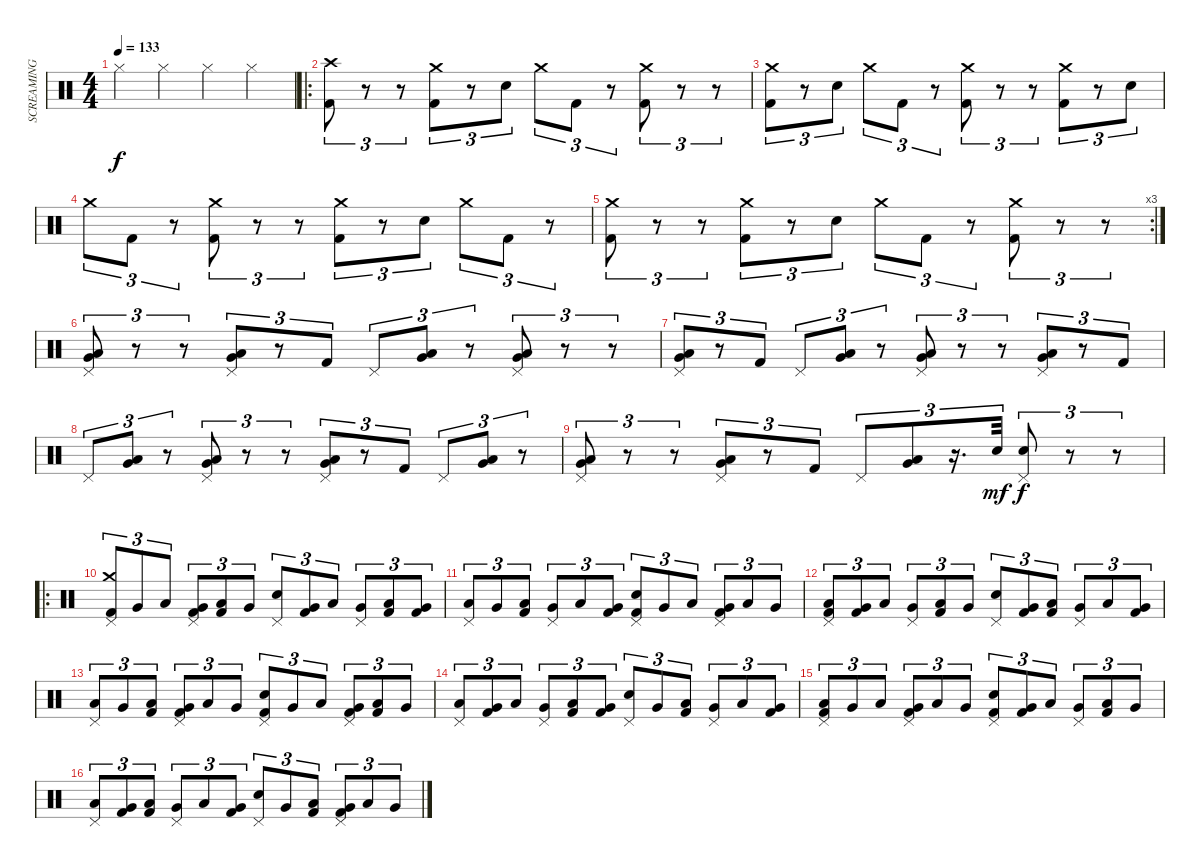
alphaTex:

\track ("SCREAMING TOASTER OVEN" "SCREAMING ") {instrument percussion}
\staff {score}
\articulation defaults
\ts (4 4)
\tempo 133
\clef neutral
\ks c "Hi-Hat (closed)".4{dy f} "Hi-Hat (closed)".4 "Hi-Hat (closed)".4 "Hi-Hat (closed)".4
|
\ro
("Crash high (hit)" "Kick (hit) 2").8{tu (3 2)} r.8{tu (3 2)} r.8{tu (3 2)} ("Crash medium (hit)" "Kick (hit) 2").8{tu (3 2)} r.8{tu (3 2)} "Electric Snare (hit)".8{tu (3 2)} "Crash medium (hit)".8{tu (3 2)} "Kick (hit) 2".8{tu (3 2)} r.8{tu (3 2)} ("Crash medium (hit)" "Kick (hit) 2").8{tu (3 2)} r.8{tu (3 2)} r.8{tu (3 2)} |
("Crash medium (hit)" "Kick (hit) 2").8{tu (3 2)} r.8{tu (3 2)} "Electric Snare (hit)".8{tu (3 2)} "Crash medium (hit)".8{tu (3 2)} "Kick (hit) 2".8{tu (3 2)} r.8{tu (3 2)} ("Crash medium (hit)" "Kick (hit) 2").8{tu (3 2)} r.8{tu (3 2)} r.8{tu (3 2)} ("Crash medium (hit)" "Kick (hit) 2").8{tu (3 2)} r.8{tu (3 2)} "Electric Snare (hit)".8{tu (3 2)} |
"Crash medium (hit)".8{tu (3 2)} "Kick (hit) 2".8{tu (3 2)} r.8{tu (3 2)} ("Crash medium (hit)" "Kick (hit) 2").8{tu (3 2)} r.8{tu (3 2)} r.8{tu (3 2)} ("Crash medium (hit)" "Kick (hit) 2").8{tu (3 2)} r.8{tu (3 2)} "Electric Snare (hit)".8{tu (3 2)} "Crash medium (hit)".8{tu (3 2)} "Kick (hit) 2".8{tu (3 2)} r.8{tu (3 2)} |
\rc 3
("Crash medium (hit)" "Kick (hit) 2").8{tu (3 2)} r.8{tu (3 2)} r.8{tu (3 2)} ("Crash medium (hit)" "Kick (hit) 2").8{tu (3 2)} r.8{tu (3 2)} "Electric Snare (hit)".8{tu (3 2)} "Crash medium (hit)".8{tu (3 2)} "Kick (hit) 2".8{tu (3 2)} r.8{tu (3 2)} ("Crash medium (hit)" "Kick (hit) 2").8{tu (3 2)} r.8{tu (3 2)} r.8{tu (3 2)} |
("Pedal Hi-Hat (hit)" "Very Low Tom (hit)" "Low Floor Tom (hit)").8{tu (3 2)} r.8{tu (3 2)} r.8{tu (3 2)} ("Pedal Hi-Hat (hit)" "Very Low Tom (hit)" "Low Floor Tom (hit)").8{tu (3 2)} r.8{tu (3 2)} "Kick (hit) 2".8{tu (3 2)} "Pedal Hi-Hat (hit)".8{tu (3 2)} ("Very Low Tom (hit)" "Low Floor Tom (hit)").8{tu (3 2)} r.8{tu (3 2)} ("Pedal Hi-Hat (hit)" "Very Low Tom (hit)" "Low Floor Tom (hit)").8{tu (3 2)} r.8{tu (3 2)} r.8{tu (3 2)} |
("Pedal Hi-Hat (hit)" "Very Low Tom (hit)" "Low Floor Tom (hit)").8{tu (3 2)} r.8{tu (3 2)} "Kick (hit) 2".8{tu (3 2)} "Pedal Hi-Hat (hit)".8{tu (3 2)} ("Very Low Tom (hit)" "Low Floor Tom (hit)").8{tu (3 2)} r.8{tu (3 2)} ("Pedal Hi-Hat (hit)" "Very Low Tom (hit)" "Low Floor Tom (hit)").8{tu (3 2)} r.8{tu (3 2)} r.8{tu (3 2)} ("Pedal Hi-Hat (hit)" "Very Low Tom (hit)" "Low Floor Tom (hit)").8{tu (3 2)} r.8{tu (3 2)} "Kick (hit) 2".8{tu (3 2)} |
"Pedal Hi-Hat (hit)".8{tu (3 2)} ("Very Low Tom (hit)" "Low Floor Tom (hit)").8{tu (3 2)} r.8{tu (3 2)} ("Pedal Hi-Hat (hit)" "Very Low Tom (hit)" "Low Floor Tom (hit)").8{tu (3 2)} r.8{tu (3 2)} r.8{tu (3 2)} ("Pedal Hi-Hat (hit)" "Very Low Tom (hit)" "Low Floor Tom (hit)").8{tu (3 2)} r.8{tu (3 2)} "Kick (hit) 2".8{tu (3 2)} "Pedal Hi-Hat (hit)".8{tu (3 2)} ("Very Low Tom (hit)" "Low Floor Tom (hit)").8{tu (3 2)} r.8{tu (3 2)} |
("Pedal Hi-Hat (hit)" "Very Low Tom (hit)" "Low Floor Tom (hit)").8{tu (3 2)} r.8{tu (3 2)} r.8{tu (3 2)} ("Pedal Hi-Hat (hit)" "Very Low Tom (hit)" "Low Floor Tom (hit)").8{tu (3 2)} r.8{tu (3 2)} "Kick (hit) 2".8{tu (3 2)} "Pedal Hi-Hat (hit)".8{tu (3 2)} ("Very Low Tom (hit)" "Low Floor Tom (hit)").8{tu (3 2)} r.16{d tu (3 2)} "Electric Snare (hit)".32{tu (3 2) dy mf} ("Pedal Hi-Hat (hit)" "Electric Snare (hit)").8{tu (3 2) dy f} r.8{tu (3 2)} r.8{tu (3 2)} |
\ro
("Crash medium (hit)" "Pedal Hi-Hat (hit)" "Kick (hit) 2").8{tu (3 2)} "Very Low Tom (hit)".8{tu (3 2)} "Low Floor Tom (hit)".8{tu (3 2)} ("Pedal Hi-Hat (hit)" "Very Low Tom (hit)" "Kick (hit) 2").8{tu (3 2)} ("Low Floor Tom (hit)" "Kick (hit) 2").8{tu (3 2)} "Very Low Tom (hit)".8{tu (3 2)} ("Pedal Hi-Hat (hit)" "Electric Snare (hit)").8{tu (3 2)} ("Very Low Tom (hit)" "Kick (hit) 2").8{tu (3 2)} "Low Floor Tom (hit)".8{tu (3 2)} ("Pedal Hi-Hat (hit)" "Very Low Tom (hit)").8{tu (3 2)} ("Low Floor Tom (hit)" "Kick (hit) 2").8{tu (3 2)} ("Very Low Tom (hit)" "Kick (hit) 2").8{tu (3 2)} |
("Pedal Hi-Hat (hit)" "Low Floor Tom (hit)").8{tu (3 2)} "Very Low Tom (hit)".8{tu (3 2)} ("Low Floor Tom (hit)" "Kick (hit) 2").8{tu (3 2)} ("Pedal Hi-Hat (hit)" "Very Low Tom (hit)").8{tu (3 2)} "Low Floor Tom (hit)".8{tu (3 2)} ("Very Low Tom (hit)" "Kick (hit) 2").8{tu (3 2)} ("Pedal Hi-Hat (hit)" "Electric Snare (hit)" "Kick (hit) 2").8{tu (3 2)} "Very Low Tom (hit)".8{tu (3 2)} "Low Floor Tom (hit)".8{tu (3 2)} ("Pedal Hi-Hat (hit)" "Very Low Tom (hit)" "Kick (hit) 2").8{tu (3 2)} "Low Floor Tom (hit)".8{tu (3 2)} "Very Low Tom (hit)".8{tu (3 2)} |
("Pedal Hi-Hat (hit)" "Low Floor Tom (hit)" "Kick (hit) 2").8{tu (3 2)} ("Very Low Tom (hit)" "Kick (hit) 2").8{tu (3 2)} "Low Floor Tom (hit)".8{tu (3 2)} ("Pedal Hi-Hat (hit)" "Very Low Tom (hit)").8{tu (3 2)} ("Low Floor Tom (hit)" "Kick (hit) 2").8{tu (3 2)} "Very Low Tom (hit)".8{tu (3 2)} ("Pedal Hi-Hat (hit)" "Electric Snare (hit)").8{tu (3 2)} ("Very Low Tom (hit)" "Kick (hit) 2").8{tu (3 2)} ("Low Floor Tom (hit)" "Kick (hit) 2").8{tu (3 2)} ("Pedal Hi-Hat (hit)" "Very Low Tom (hit)").8{tu (3 2)} "Low Floor Tom (hit)".8{tu (3 2)} ("Very Low Tom (hit)" "Kick (hit) 2").8{tu (3 2)} |
("Pedal Hi-Hat (hit)" "Low Floor Tom (hit)").8{tu (3 2)} "Very Low Tom (hit)".8{tu (3 2)} ("Low Floor Tom (hit)" "Kick (hit) 2").8{tu (3 2)} ("Pedal Hi-Hat (hit)" "Very Low Tom (hit)" "Kick (hit) 2").8{tu (3 2)} "Low Floor Tom (hit)".8{tu (3 2)} "Very Low Tom (hit)".8{tu (3 2)} ("Pedal Hi-Hat (hit)" "Electric Snare (hit)" "Kick (hit) 2").8{tu (3 2)} "Very Low Tom (hit)".8{tu (3 2)} "Low Floor Tom (hit)".8{tu (3 2)} ("Pedal Hi-Hat (hit)" "Very Low Tom (hit)" "Kick (hit) 2").8{tu (3 2)} ("Low Floor Tom (hit)" "Kick (hit) 2").8{tu (3 2)} "Very Low Tom (hit)".8{tu (3 2)} |
("Pedal Hi-Hat (hit)" "Low Floor Tom (hit)").8{tu (3 2)} ("Very Low Tom (hit)" "Kick (hit) 2").8{tu (3 2)} "Low Floor Tom (hit)".8{tu (3 2)} ("Pedal Hi-Hat (hit)" "Very Low Tom (hit)").8{tu (3 2)} ("Low Floor Tom (hit)" "Kick (hit) 2").8{tu (3 2)} ("Very Low Tom (hit)" "Kick (hit) 2").8{tu (3 2)} ("Pedal Hi-Hat (hit)" "Electric Snare (hit)").8{tu (3 2)} "Very Low Tom (hit)".8{tu (3 2)} ("Low Floor Tom (hit)" "Kick (hit) 2").8{tu (3 2)} ("Pedal Hi-Hat (hit)" "Very Low Tom (hit)").8{tu (3 2)} "Low Floor Tom (hit)".8{tu (3 2)} ("Very Low Tom (hit)" "Kick (hit) 2").8{tu (3 2)} |
("Pedal Hi-Hat (hit)" "Low Floor Tom (hit)" "Kick (hit) 2").8{tu (3 2)} "Very Low Tom (hit)".8{tu (3 2)} "Low Floor Tom (hit)".8{tu (3 2)} ("Pedal Hi-Hat (hit)" "Very Low Tom (hit)" "Kick (hit) 2").8{tu (3 2)} "Low Floor Tom (hit)".8{tu (3 2)} "Very Low Tom (hit)".8{tu (3 2)} ("Pedal Hi-Hat (hit)" "Electric Snare (hit)" "Kick (hit) 2").8{tu (3 2)} ("Very Low Tom (hit)" "Kick (hit) 2").8{tu (3 2)} "Low Floor Tom (hit)".8{tu (3 2)} ("Pedal Hi-Hat (hit)" "Very Low Tom (hit)").8{tu (3 2)} ("Low Floor Tom (hit)" "Kick (hit) 2").8{tu (3 2)} "Very Low Tom (hit)".8{tu (3 2)} |
("Pedal Hi-Hat (hit)" "Low Floor Tom (hit)").8{tu (3 2)} ("Very Low Tom (hit)" "Kick (hit) 2").8{tu (3 2)} ("Low Floor Tom (hit)" "Kick (hit) 2").8{tu (3 2)} ("Pedal Hi-Hat (hit)" "Very Low Tom (hit)").8{tu (3 2)} "Low Floor Tom (hit)".8{tu (3 2)} ("Very Low Tom (hit)" "Kick (hit) 2").8{tu (3 2)} ("Pedal Hi-Hat (hit)" "Electric Snare (hit)").8{tu (3 2)} "Very Low Tom (hit)".8{tu (3 2)} ("Low Floor Tom (hit)" "Kick (hit) 2").8{tu (3 2)} ("Pedal Hi-Hat (hit)" "Very Low Tom (hit)" "Kick (hit) 2").8{tu (3 2)} "Low Floor Tom (hit)".8{tu (3 2)} "Very Low Tom (hit)".8{tu (3 2)}
